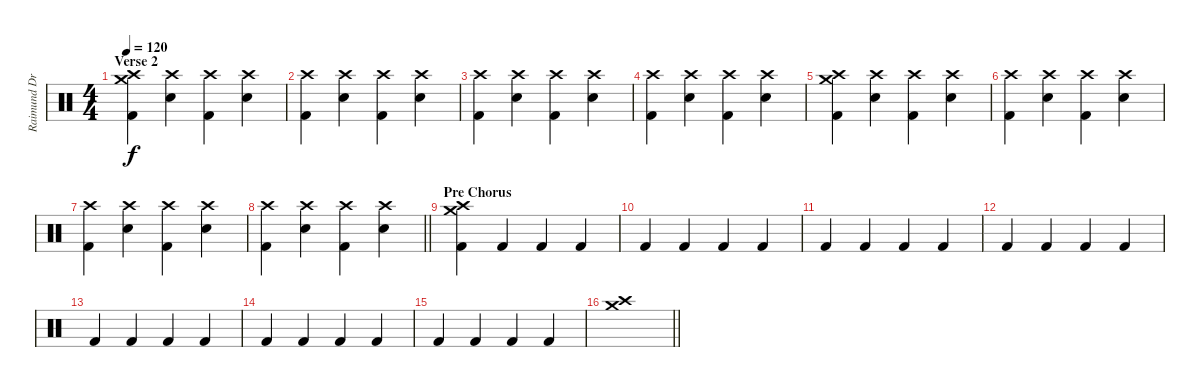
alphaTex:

\track ("Raimund Drums" "Raimund Dr") {instrument percussion}
\staff {score}
\articulation defaults
\ts (4 4)
\section ("" "Verse 2")
\tempo 120
\clef neutral
\ks c
("Crash high (hit)" "Crash medium (hit)" "Kick (hit) 2").4{dy f} ("Crash high (hit)" "Electric Snare (hit)").4 ("Crash high (hit)" "Kick (hit) 2").4 ("Crash high (hit)" "Electric Snare (hit)").4 |
("Crash high (hit)" "Kick (hit) 2").4 ("Crash high (hit)" "Electric Snare (hit)").4 ("Crash high (hit)" "Kick (hit) 2").4 ("Crash high (hit)" "Electric Snare (hit)").4 |
("Crash high (hit)" "Kick (hit) 2").4 ("Crash high (hit)" "Electric Snare (hit)").4 ("Crash high (hit)" "Kick (hit) 2").4 ("Crash high (hit)" "Electric Snare (hit)").4 |
("Crash high (hit)" "Kick (hit) 2").4 ("Crash high (hit)" "Electric Snare (hit)").4 ("Crash high (hit)" "Kick (hit) 2").4 ("Crash high (hit)" "Electric Snare (hit)").4 |
("Crash high (hit)" "Crash medium (hit)" "Kick (hit) 2").4 ("Crash high (hit)" "Electric Snare (hit)").4 ("Crash high (hit)" "Kick (hit) 2").4 ("Crash high (hit)" "Electric Snare (hit)").4 |
("Crash high (hit)" "Kick (hit) 2").4 ("Crash high (hit)" "Electric Snare (hit)").4 ("Crash high (hit)" "Kick (hit) 2").4 ("Crash high (hit)" "Electric Snare (hit)").4 |
("Crash high (hit)" "Kick (hit) 2").4 ("Crash high (hit)" "Electric Snare (hit)").4 ("Crash high (hit)" "Kick (hit) 2").4 ("Crash high (hit)" "Electric Snare (hit)").4 |
\barLineRight lightlight
("Crash high (hit)" "Kick (hit) 2").4 ("Crash high (hit)" "Electric Snare (hit)").4 ("Crash high (hit)" "Kick (hit) 2").4 ("Crash high (hit)" "Electric Snare (hit)").4 |
\section ("" "Pre Chorus")
("Crash high (hit)" "Crash medium (hit)" "Kick (hit) 2").4 "Kick (hit) 2".4 "Kick (hit) 2".4 "Kick (hit) 2".4 |
"Kick (hit) 2".4 "Kick (hit) 2".4 "Kick (hit) 2".4 "Kick (hit) 2".4 |
"Kick (hit) 2".4 "Kick (hit) 2".4 "Kick (hit) 2".4 "Kick (hit) 2".4 |
"Kick (hit) 2".4 "Kick (hit) 2".4 "Kick (hit) 2".4 "Kick (hit) 2".4 |
"Kick (hit) 2".4 "Kick (hit) 2".4 "Kick (hit) 2".4 "Kick (hit) 2".4 |
"Kick (hit) 2".4 "Kick (hit) 2".4 "Kick (hit) 2".4 "Kick (hit) 2".4 |
"Kick (hit) 2".4 "Kick (hit) 2".4 "Kick (hit) 2".4 "Kick (hit) 2".4 |
\barLineRight lightlight
("Crash high (hit)" "Crash medium (hit)").1
